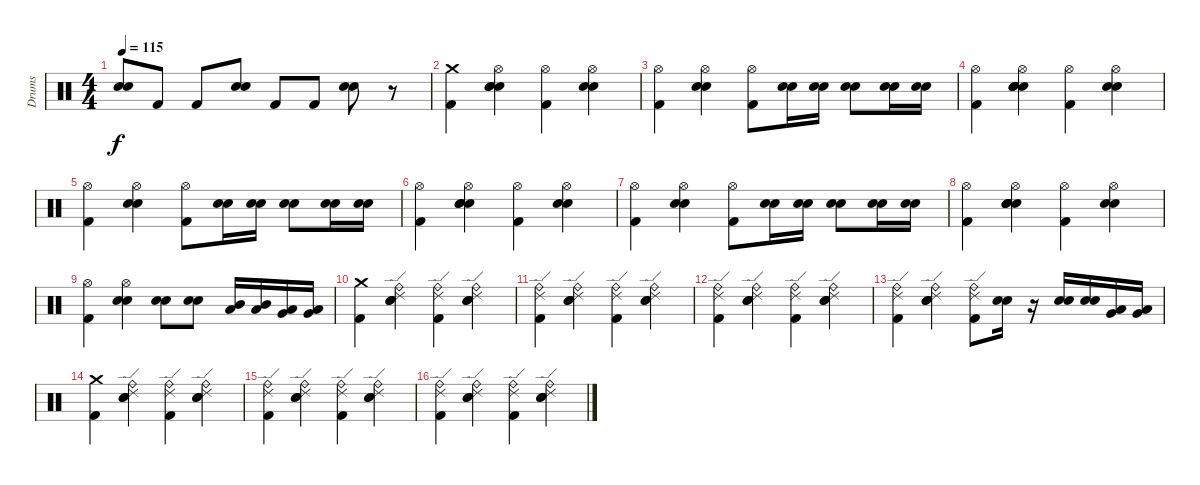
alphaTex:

\track ("Drums" "Drums") {instrument percussion}
\staff {score}
\articulation defaults
\ts (4 4)
\tempo 115
\clef neutral
\ks c
("Electric Snare (hit)" "Snare (hit) 2").8{dy f} "Kick (hit) 2".8 "Kick (hit) 2".8 ("Electric Snare (hit)" "Snare (hit) 2").8 "Kick (hit) 2".8 "Kick (hit) 2".8 ("Electric Snare (hit)" "Snare (hit) 2").8 r.8 |
("Crash medium (hit)" "Kick (hit) 2").4 ("Hand Clap (hit)" "Hi-Hat (open)" "Electric Snare (hit)" "Snare (hit) 2").4 ("Hi-Hat (open)" "Kick (hit) 2").4 ("Hi-Hat (open)" "Electric Snare (hit)" "Snare (hit) 2").4 |
("Hi-Hat (open)" "Kick (hit) 2").4 ("Hi-Hat (open)" "Electric Snare (hit)" "Snare (hit) 2").4 ("Hi-Hat (open)" "Kick (hit) 2").8 ("Electric Snare (hit)" "Snare (hit) 2").16 ("Electric Snare (hit)" "Snare (hit) 2").16 ("Electric Snare (hit)" "Snare (hit) 2").8 ("Electric Snare (hit)" "Snare (hit) 2").16 ("Electric Snare (hit)" "Snare (hit) 2").16 |
("Hi-Hat (open)" "Kick (hit) 2").4 ("Snare (hit) 2" "Electric Snare (hit)" "Hi-Hat (open)" "Electric Snare (hit)" "Hand Clap (hit)").4 ("Hi-Hat (open)" "Kick (hit) 2").4 ("Hi-Hat (open)" "Electric Snare (hit)" "Snare (hit) 2").4 |
("Hi-Hat (open)" "Kick (hit) 2").4 ("Hi-Hat (open)" "Electric Snare (hit)" "Snare (hit) 2").4 ("Hi-Hat (open)" "Kick (hit) 2").8 ("Electric Snare (hit)" "Snare (hit) 2").16 ("Electric Snare (hit)" "Snare (hit) 2").16 ("Electric Snare (hit)" "Snare (hit) 2").8 ("Electric Snare (hit)" "Snare (hit) 2").16 ("Electric Snare (hit)" "Snare (hit) 2").16 |
("Hi-Hat (open)" "Kick (hit) 2").4 ("Hand Clap (hit)" "Hi-Hat (open)" "Electric Snare (hit)" "Snare (hit) 2").4 ("Hi-Hat (open)" "Kick (hit) 2").4 ("Hi-Hat (open)" "Electric Snare (hit)" "Snare (hit) 2").4 |
("Hi-Hat (open)" "Kick (hit) 2").4 ("Hi-Hat (open)" "Electric Snare (hit)" "Snare (hit) 2").4 ("Hi-Hat (open)" "Kick (hit) 2").8 ("Electric Snare (hit)" "Snare (hit) 2").16 ("Electric Snare (hit)" "Snare (hit) 2").16 ("Electric Snare (hit)" "Snare (hit) 2").8 ("Electric Snare (hit)" "Snare (hit) 2").16 ("Electric Snare (hit)" "Snare (hit) 2").16 |
("Hi-Hat (open)" "Kick (hit) 2").4 ("Snare (hit) 2" "Electric Snare (hit)" "Hi-Hat (open)" "Electric Snare (hit)" "Hand Clap (hit)").4 ("Hi-Hat (open)" "Kick (hit) 2").4 ("Hi-Hat (open)" "Electric Snare (hit)" "Snare (hit) 2").4 |
("Hi-Hat (open)" "Kick (hit) 2").4 ("Hi-Hat (open)" "Electric Snare (hit)" "Snare (hit) 2").4 ("Electric Snare (hit)" "Snare (hit) 2").8 ("Electric Snare (hit)" "Snare (hit) 2").8 ("Mid Tom (hit)" "Low Tom (hit)").16 ("Mid Tom (hit)" "Low Tom (hit)").16 ("Low Tom (hit)" "Very Low Tom (hit)").16 ("Low Tom (hit)" "Very Low Tom (hit)").16 |
("Crash medium (hit)" "Kick (hit) 2").4 ("Ride (edge) 2" "Ride (bell)" "Electric Snare (hit)" "Snare (hit) 2").4 ("Ride (edge) 2" "Ride (bell)" "Kick (hit) 2").4 ("Ride (edge) 2" "Ride (bell)" "Electric Snare (hit)" "Snare (hit) 2").4 |
("Ride (edge) 2" "Ride (bell)" "Kick (hit) 2").4 ("Ride (edge) 2" "Ride (bell)" "Electric Snare (hit)" "Snare (hit) 2").4 ("Ride (edge) 2" "Ride (bell)" "Kick (hit) 2").4 ("Ride (edge) 2" "Ride (bell)" "Electric Snare (hit)" "Snare (hit) 2").4 |
("Ride (edge) 2" "Ride (bell)" "Kick (hit) 2").4 ("Ride (edge) 2" "Ride (bell)" "Electric Snare (hit)" "Snare (hit) 2").4 ("Ride (edge) 2" "Ride (bell)" "Kick (hit) 2").4 ("Ride (edge) 2" "Ride (bell)" "Electric Snare (hit)" "Snare (hit) 2").4 |
("Ride (edge) 2" "Ride (bell)" "Kick (hit) 2").4 ("Ride (edge) 2" "Ride (bell)" "Electric Snare (hit)" "Snare (hit) 2").4 ("Ride (edge) 2" "Ride (bell)" "Kick (hit) 2").8 ("Electric Snare (hit)" "Snare (hit) 2").16 r.16 ("Electric Snare (hit)" "Snare (hit) 2").16 ("Electric Snare (hit)" "Snare (hit) 2").16 ("Very Low Tom (hit)" "Low Tom (hit)").16 ("Very Low Tom (hit)" "Low Tom (hit)").16 |
("Crash medium (hit)" "Kick (hit) 2").4 ("Ride (edge) 2" "Ride (bell)" "Electric Snare (hit)" "Snare (hit) 2").4 ("Ride (edge) 2" "Ride (bell)" "Kick (hit) 2").4 ("Ride (edge) 2" "Ride (bell)" "Electric Snare (hit)" "Snare (hit) 2").4 |
("Ride (edge) 2" "Ride (bell)" "Kick (hit) 2").4 ("Ride (edge) 2" "Ride (bell)" "Electric Snare (hit)" "Snare (hit) 2").4 ("Ride (edge) 2" "Ride (bell)" "Kick (hit) 2").4 ("Ride (edge) 2" "Ride (bell)" "Electric Snare (hit)" "Snare (hit) 2").4 |
("Ride (edge) 2" "Ride (bell)" "Kick (hit) 2").4 ("Ride (edge) 2" "Ride (bell)" "Electric Snare (hit)" "Snare (hit) 2").4 ("Ride (edge) 2" "Ride (bell)" "Kick (hit) 2").4 ("Ride (edge) 2" "Ride (bell)" "Electric Snare (hit)" "Snare (hit) 2").4
